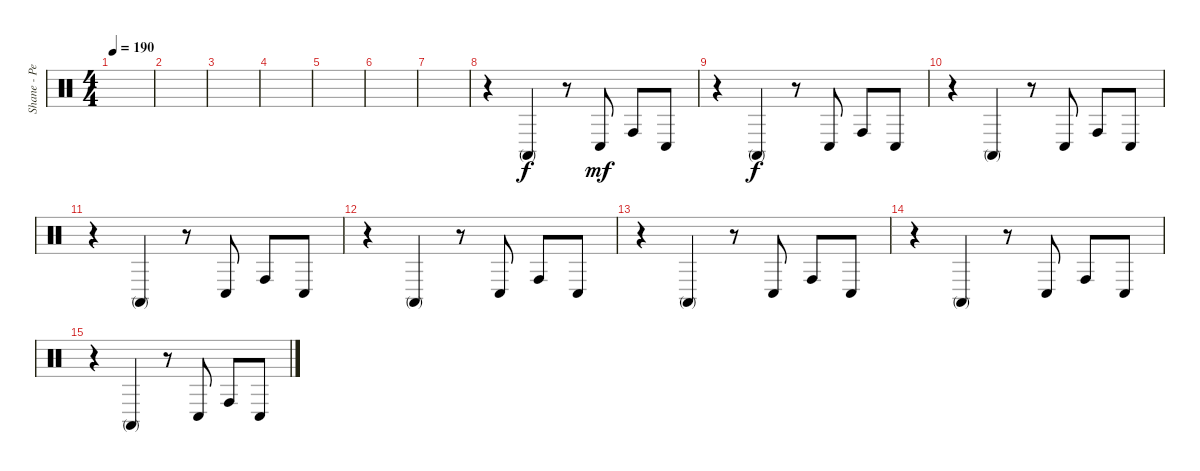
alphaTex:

\track ("Shane - Percussion" "Shane - Pe") {instrument percussion}
\staff {score}
\articulation defaults
\ts (4 4)
\tempo 190
\clef neutral
\ks c
|
|
|
|
|
|
|
r.4 "Conga high (mute)".4 r.8 "Conga low (hit)".8{dy mf} "Conga high (hit)".8 "Conga low (hit)".8 |
r.4 "Conga high (mute)".4{dy f} r.8 "Conga low (hit)".8 "Conga high (hit)".8 "Conga low (hit)".8 |
r.4 "Conga high (mute)".4 r.8 "Conga low (hit)".8 "Conga high (hit)".8 "Conga low (hit)".8 |
r.4 "Conga high (mute)".4 r.8 "Conga low (hit)".8 "Conga high (hit)".8 "Conga low (hit)".8 |
r.4 "Conga high (mute)".4 r.8 "Conga low (hit)".8 "Conga high (hit)".8 "Conga low (hit)".8 |
r.4 "Conga high (mute)".4 r.8 "Conga low (hit)".8 "Conga high (hit)".8 "Conga low (hit)".8 |
r.4 "Conga high (mute)".4 r.8 "Conga low (hit)".8 "Conga high (hit)".8 "Conga low (hit)".8 |
r.4 "Conga high (mute)".4 r.8 "Conga low (hit)".8 "Conga high (hit)".8 "Conga low (hit)".8
